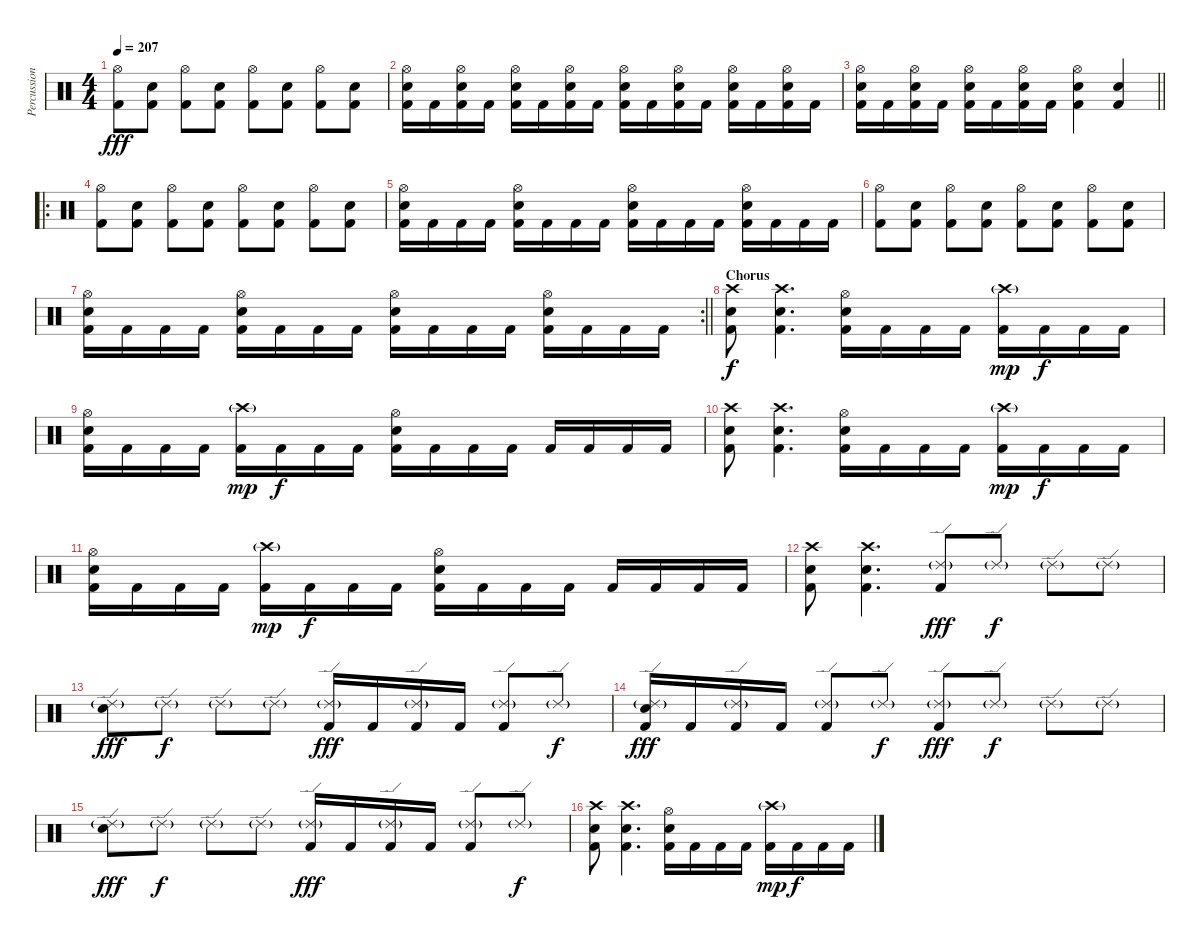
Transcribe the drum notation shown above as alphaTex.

\track ("Percussion" "Percussion") {instrument percussion}
\staff {score}
\articulation defaults
\ts (4 4)
\tempo 207
\clef neutral
\ks c
("Hi-Hat (open)" "Kick (hit) 2").8{dy fff} ("Electric Snare (hit)" "Kick (hit) 2").8 ("Hi-Hat (open)" "Kick (hit) 2").8 ("Electric Snare (hit)" "Kick (hit) 2").8 ("Hi-Hat (open)" "Kick (hit) 2").8 ("Electric Snare (hit)" "Kick (hit) 2").8 ("Hi-Hat (open)" "Kick (hit) 2").8 ("Electric Snare (hit)" "Kick (hit) 2").8 |
("Hi-Hat (open)" "Electric Snare (hit)" "Kick (hit) 2").16 "Kick (hit) 2".16 ("Hi-Hat (open)" "Electric Snare (hit)" "Kick (hit) 2").16 "Kick (hit) 2".16 ("Hi-Hat (open)" "Electric Snare (hit)" "Kick (hit) 2").16 "Kick (hit) 2".16 ("Hi-Hat (open)" "Electric Snare (hit)" "Kick (hit) 2").16 "Kick (hit) 2".16 ("Hi-Hat (open)" "Electric Snare (hit)" "Kick (hit) 2").16 "Kick (hit) 2".16 ("Hi-Hat (open)" "Electric Snare (hit)" "Kick (hit) 2").16 "Kick (hit) 2".16 ("Hi-Hat (open)" "Electric Snare (hit)" "Kick (hit) 2").16 "Kick (hit) 2".16 ("Hi-Hat (open)" "Electric Snare (hit)" "Kick (hit) 2").16 "Kick (hit) 2".16 |
\barLineRight lightlight
("Hi-Hat (open)" "Electric Snare (hit)" "Kick (hit) 2").16 "Kick (hit) 2".16 ("Hi-Hat (open)" "Electric Snare (hit)" "Kick (hit) 2").16 "Kick (hit) 2".16 ("Hi-Hat (open)" "Electric Snare (hit)" "Kick (hit) 2").16 "Kick (hit) 2".16 ("Hi-Hat (open)" "Electric Snare (hit)" "Kick (hit) 2").16 "Kick (hit) 2".16 ("Hi-Hat (open)" "Electric Snare (hit)" "Kick (hit) 2").4 ("Electric Snare (hit)" "Kick (hit) 2").4 |
\ro
\section ("" "")
("Hi-Hat (open)" "Kick (hit) 2").8 ("Electric Snare (hit)" "Kick (hit) 2").8 ("Hi-Hat (open)" "Kick (hit) 2").8 ("Electric Snare (hit)" "Kick (hit) 2").8 ("Hi-Hat (open)" "Kick (hit) 2").8 ("Electric Snare (hit)" "Kick (hit) 2").8 ("Hi-Hat (open)" "Kick (hit) 2").8 ("Electric Snare (hit)" "Kick (hit) 2").8 |
("Hi-Hat (open)" "Electric Snare (hit)" "Kick (hit) 2").16 "Kick (hit) 2".16 "Kick (hit) 2".16 "Kick (hit) 2".16 ("Hi-Hat (open)" "Electric Snare (hit)" "Kick (hit) 2").16 "Kick (hit) 2".16 "Kick (hit) 2".16 "Kick (hit) 2".16 ("Hi-Hat (open)" "Electric Snare (hit)" "Kick (hit) 2").16 "Kick (hit) 2".16 "Kick (hit) 2".16 "Kick (hit) 2".16 ("Hi-Hat (open)" "Electric Snare (hit)" "Kick (hit) 2").16 "Kick (hit) 2".16 "Kick (hit) 2".16 "Kick (hit) 2".16 |
("Hi-Hat (open)" "Kick (hit) 2").8 ("Electric Snare (hit)" "Kick (hit) 2").8 ("Hi-Hat (open)" "Kick (hit) 2").8 ("Electric Snare (hit)" "Kick (hit) 2").8 ("Hi-Hat (open)" "Kick (hit) 2").8 ("Electric Snare (hit)" "Kick (hit) 2").8 ("Hi-Hat (open)" "Kick (hit) 2").8 ("Electric Snare (hit)" "Kick (hit) 2").8 |
\rc 2
\barLineRight lightlight
("Hi-Hat (open)" "Electric Snare (hit)" "Kick (hit) 2").16 "Kick (hit) 2".16 "Kick (hit) 2".16 "Kick (hit) 2".16 ("Hi-Hat (open)" "Electric Snare (hit)" "Kick (hit) 2").16 "Kick (hit) 2".16 "Kick (hit) 2".16 "Kick (hit) 2".16 ("Hi-Hat (open)" "Electric Snare (hit)" "Kick (hit) 2").16 "Kick (hit) 2".16 "Kick (hit) 2".16 "Kick (hit) 2".16 ("Hi-Hat (open)" "Electric Snare (hit)" "Kick (hit) 2").16 "Kick (hit) 2".16 "Kick (hit) 2".16 "Kick (hit) 2".16 |
\section ("" "Chorus")
("Crash high (hit)" "Electric Snare (hit)" "Kick (hit) 2").8{dy f} ("Crash high (hit)" "Electric Snare (hit)" "Kick (hit) 2").4{d} ("Hi-Hat (open)" "Electric Snare (hit)" "Kick (hit) 2").16 "Kick (hit) 2".16 "Kick (hit) 2".16 "Kick (hit) 2".16 ("Crash high (hit)"{g} "Kick (hit) 2").16{dy mp} "Kick (hit) 2".16{dy f} "Kick (hit) 2".16 "Kick (hit) 2".16 |
("Hi-Hat (open)" "Electric Snare (hit)" "Kick (hit) 2").16 "Kick (hit) 2".16 "Kick (hit) 2".16 "Kick (hit) 2".16 ("Crash high (hit)"{g} "Kick (hit) 2").16{dy mp} "Kick (hit) 2".16{dy f} "Kick (hit) 2".16 "Kick (hit) 2".16 ("Hi-Hat (open)" "Electric Snare (hit)" "Kick (hit) 2").16 "Kick (hit) 2".16 "Kick (hit) 2".16 "Kick (hit) 2".16 "Kick (hit) 2".16 "Kick (hit) 2".16 "Kick (hit) 2".16 "Kick (hit) 2".16 |
("Crash high (hit)" "Electric Snare (hit)" "Kick (hit) 2").8 ("Crash high (hit)" "Electric Snare (hit)" "Kick (hit) 2").4{d} ("Hi-Hat (open)" "Electric Snare (hit)" "Kick (hit) 2").16 "Kick (hit) 2".16 "Kick (hit) 2".16 "Kick (hit) 2".16 ("Crash high (hit)"{g} "Kick (hit) 2").16{dy mp} "Kick (hit) 2".16{dy f} "Kick (hit) 2".16 "Kick (hit) 2".16 |
("Hi-Hat (open)" "Electric Snare (hit)" "Kick (hit) 2").16 "Kick (hit) 2".16 "Kick (hit) 2".16 "Kick (hit) 2".16 ("Crash high (hit)"{g} "Kick (hit) 2").16{dy mp} "Kick (hit) 2".16{dy f} "Kick (hit) 2".16 "Kick (hit) 2".16 ("Hi-Hat (open)" "Electric Snare (hit)" "Kick (hit) 2").16 "Kick (hit) 2".16 "Kick (hit) 2".16 "Kick (hit) 2".16 "Kick (hit) 2".16 "Kick (hit) 2".16 "Kick (hit) 2".16 "Kick (hit) 2".16 |
("Crash high (hit)" "Electric Snare (hit)" "Kick (hit) 2").8 ("Crash high (hit)" "Electric Snare (hit)" "Kick (hit) 2").4{d} ("Ride (edge) 2"{g} "Kick (hit) 2").8{dy fff} "Ride (edge) 2"{g}.8{dy f} "Ride (edge) 2"{g}.8 "Ride (edge) 2"{g}.8 |
("Ride (edge) 2"{g} "Electric Snare (hit)").8{dy fff} "Ride (edge) 2"{g}.8{dy f} "Ride (edge) 2"{g}.8 "Ride (edge) 2"{g}.8 ("Ride (edge) 2"{g} "Kick (hit) 2").16{dy fff} "Kick (hit) 2".16 ("Ride (edge) 2"{g} "Kick (hit) 2").16 "Kick (hit) 2".16 ("Ride (edge) 2"{g} "Kick (hit) 2").8 "Ride (edge) 2"{g}.8{dy f} |
("Ride (edge) 2"{g} "Electric Snare (hit)" "Kick (hit) 2").16{dy fff} "Kick (hit) 2".16 ("Ride (edge) 2"{g} "Kick (hit) 2").16 "Kick (hit) 2".16 ("Ride (edge) 2"{g} "Kick (hit) 2").8 "Ride (edge) 2"{g}.8{dy f} ("Ride (edge) 2"{g} "Kick (hit) 2").8{dy fff} "Ride (edge) 2"{g}.8{dy f} "Ride (edge) 2"{g}.8 "Ride (edge) 2"{g}.8 |
("Ride (edge) 2"{g} "Electric Snare (hit)").8{dy fff} "Ride (edge) 2"{g}.8{dy f} "Ride (edge) 2"{g}.8 "Ride (edge) 2"{g}.8 ("Ride (edge) 2"{g} "Kick (hit) 2").16{dy fff} "Kick (hit) 2".16 ("Ride (edge) 2"{g} "Kick (hit) 2").16 "Kick (hit) 2".16 ("Ride (edge) 2"{g} "Kick (hit) 2").8 "Ride (edge) 2"{g}.8{dy f} |
("Crash high (hit)" "Electric Snare (hit)" "Kick (hit) 2").8 ("Crash high (hit)" "Electric Snare (hit)" "Kick (hit) 2").4{d} ("Hi-Hat (open)" "Electric Snare (hit)" "Kick (hit) 2").16 "Kick (hit) 2".16 "Kick (hit) 2".16 "Kick (hit) 2".16 ("Crash high (hit)"{g} "Kick (hit) 2").16{dy mp} "Kick (hit) 2".16{dy f} "Kick (hit) 2".16 "Kick (hit) 2".16
